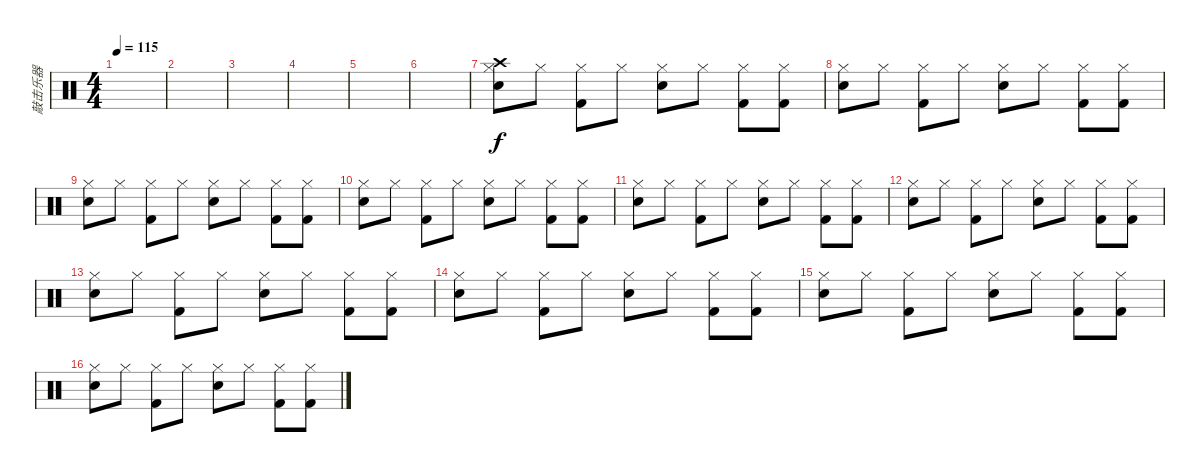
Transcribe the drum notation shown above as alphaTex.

\track ("敲击乐器" "敲击乐器") {instrument percussion}
\staff {score}
\articulation defaults
\ts (4 4)
\tempo 115
\clef neutral
\ks c
|
|
|
|
|
|
("Hi-Hat (closed)" "Electric Snare (hit)" "Crash high (hit)").8 "Hi-Hat (closed)".8 ("Hi-Hat (closed)" "Kick (hit) 2").8 "Hi-Hat (closed)".8 ("Hi-Hat (closed)" "Electric Snare (hit)").8 "Hi-Hat (closed)".8 ("Hi-Hat (closed)" "Kick (hit) 2").8 ("Hi-Hat (closed)" "Kick (hit) 2").8 |
("Hi-Hat (closed)" "Electric Snare (hit)").8 "Hi-Hat (closed)".8 ("Hi-Hat (closed)" "Kick (hit) 2").8 "Hi-Hat (closed)".8 ("Hi-Hat (closed)" "Electric Snare (hit)").8 "Hi-Hat (closed)".8 ("Hi-Hat (closed)" "Kick (hit) 2").8 ("Hi-Hat (closed)" "Kick (hit) 2").8 |
("Hi-Hat (closed)" "Electric Snare (hit)").8 "Hi-Hat (closed)".8 ("Hi-Hat (closed)" "Kick (hit) 2").8 "Hi-Hat (closed)".8 ("Hi-Hat (closed)" "Electric Snare (hit)").8 "Hi-Hat (closed)".8 ("Hi-Hat (closed)" "Kick (hit) 2").8 ("Hi-Hat (closed)" "Kick (hit) 2").8 |
("Hi-Hat (closed)" "Electric Snare (hit)").8 "Hi-Hat (closed)".8 ("Hi-Hat (closed)" "Kick (hit) 2").8 "Hi-Hat (closed)".8 ("Hi-Hat (closed)" "Electric Snare (hit)").8 "Hi-Hat (closed)".8 ("Hi-Hat (closed)" "Kick (hit) 2").8 ("Hi-Hat (closed)" "Kick (hit) 2").8 |
("Hi-Hat (closed)" "Electric Snare (hit)").8 "Hi-Hat (closed)".8 ("Hi-Hat (closed)" "Kick (hit) 2").8 "Hi-Hat (closed)".8 ("Hi-Hat (closed)" "Electric Snare (hit)").8 "Hi-Hat (closed)".8 ("Hi-Hat (closed)" "Kick (hit) 2").8 ("Hi-Hat (closed)" "Kick (hit) 2").8 |
("Hi-Hat (closed)" "Electric Snare (hit)").8 "Hi-Hat (closed)".8 ("Hi-Hat (closed)" "Kick (hit) 2").8 "Hi-Hat (closed)".8 ("Hi-Hat (closed)" "Electric Snare (hit)").8 "Hi-Hat (closed)".8 ("Hi-Hat (closed)" "Kick (hit) 2").8 ("Hi-Hat (closed)" "Kick (hit) 2").8 |
("Hi-Hat (closed)" "Electric Snare (hit)").8 "Hi-Hat (closed)".8 ("Hi-Hat (closed)" "Kick (hit) 2").8 "Hi-Hat (closed)".8 ("Hi-Hat (closed)" "Electric Snare (hit)").8 "Hi-Hat (closed)".8 ("Hi-Hat (closed)" "Kick (hit) 2").8 ("Hi-Hat (closed)" "Kick (hit) 2").8 |
("Hi-Hat (closed)" "Electric Snare (hit)").8 "Hi-Hat (closed)".8 ("Hi-Hat (closed)" "Kick (hit) 2").8 "Hi-Hat (closed)".8 ("Hi-Hat (closed)" "Electric Snare (hit)").8 "Hi-Hat (closed)".8 ("Hi-Hat (closed)" "Kick (hit) 2").8 ("Hi-Hat (closed)" "Kick (hit) 2").8 |
("Hi-Hat (closed)" "Electric Snare (hit)").8 "Hi-Hat (closed)".8 ("Hi-Hat (closed)" "Kick (hit) 2").8 "Hi-Hat (closed)".8 ("Hi-Hat (closed)" "Electric Snare (hit)").8 "Hi-Hat (closed)".8 ("Hi-Hat (closed)" "Kick (hit) 2").8 ("Hi-Hat (closed)" "Kick (hit) 2").8 |
("Hi-Hat (closed)" "Electric Snare (hit)").8 "Hi-Hat (closed)".8 ("Hi-Hat (closed)" "Kick (hit) 2").8 "Hi-Hat (closed)".8 ("Hi-Hat (closed)" "Electric Snare (hit)").8 "Hi-Hat (closed)".8 ("Hi-Hat (closed)" "Kick (hit) 2").8 ("Hi-Hat (closed)" "Kick (hit) 2").8
